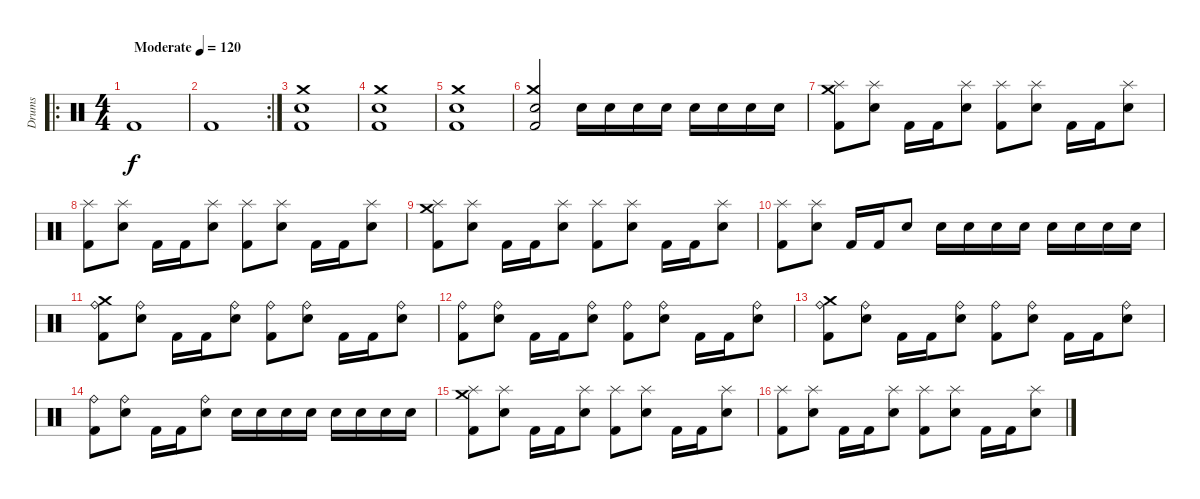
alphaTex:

\track ("Drums" "Drums") {instrument percussion}
\staff {score}
\articulation defaults
\ro
\ts (4 4)
\tempo (120 "Moderate")
\clef neutral
\ks c "Kick (hit) 2".1{dy f}
|
\rc 2 "Kick (hit) 2".1
|
("Crash medium (hit)" "Snare (hit) 2" "Kick (hit) 2").1 |
("Crash medium (hit)" "Snare (hit) 2" "Kick (hit) 2").1 |
("Crash medium (hit)" "Snare (hit) 2" "Kick (hit) 2").1 |
("Crash medium (hit)" "Snare (hit) 2" "Kick (hit) 2").2 "Snare (hit) 2".16 "Snare (hit) 2".16 "Snare (hit) 2".16 "Snare (hit) 2".16 "Snare (hit) 2".16 "Snare (hit) 2".16 "Snare (hit) 2".16 "Snare (hit) 2".16 |
("Splash (hit)" "Crash medium (hit)" "Kick (hit) 2").8 ("Splash (hit)" "Snare (hit) 2").8 "Kick (hit) 2".16 "Kick (hit) 2".16 ("Splash (hit)" "Snare (hit) 2").8 ("Splash (hit)" "Kick (hit) 2").8 ("Splash (hit)" "Snare (hit) 2").8 "Kick (hit) 2".16 "Kick (hit) 2".16 ("Splash (hit)" "Snare (hit) 2").8 |
("Splash (hit)" "Kick (hit) 2").8 ("Splash (hit)" "Snare (hit) 2").8 "Kick (hit) 2".16 "Kick (hit) 2".16 ("Splash (hit)" "Snare (hit) 2").8 ("Splash (hit)" "Kick (hit) 2").8 ("Splash (hit)" "Snare (hit) 2").8 "Kick (hit) 2".16 "Kick (hit) 2".16 ("Splash (hit)" "Snare (hit) 2").8 |
("Splash (hit)" "Crash medium (hit)" "Kick (hit) 2").8 ("Splash (hit)" "Snare (hit) 2").8 "Kick (hit) 2".16 "Kick (hit) 2".16 ("Splash (hit)" "Snare (hit) 2").8 ("Splash (hit)" "Kick (hit) 2").8 ("Splash (hit)" "Snare (hit) 2").8 "Kick (hit) 2".16 "Kick (hit) 2".16 ("Splash (hit)" "Snare (hit) 2").8 |
("Splash (hit)" "Kick (hit) 2").8 ("Splash (hit)" "Snare (hit) 2").8 "Kick (hit) 2".16 "Kick (hit) 2".16 "Snare (hit) 2".8 "Snare (hit) 2".16 "Snare (hit) 2".16 "Snare (hit) 2".16 "Snare (hit) 2".16 "Snare (hit) 2".16 "Snare (hit) 2".16 "Snare (hit) 2".16 "Snare (hit) 2".16 |
("Ride (bell)" "Crash medium (hit)" "Kick (hit) 2").8 ("Ride (bell)" "Snare (hit) 2").8 "Kick (hit) 2".16 "Kick (hit) 2".16 ("Ride (bell)" "Snare (hit) 2").8 ("Ride (bell)" "Kick (hit) 2").8 ("Ride (bell)" "Snare (hit) 2").8 "Kick (hit) 2".16 "Kick (hit) 2".16 ("Ride (bell)" "Snare (hit) 2").8 |
("Ride (bell)" "Kick (hit) 2").8 ("Ride (bell)" "Snare (hit) 2").8 "Kick (hit) 2".16 "Kick (hit) 2".16 ("Ride (bell)" "Snare (hit) 2").8 ("Ride (bell)" "Kick (hit) 2").8 ("Ride (bell)" "Snare (hit) 2").8 "Kick (hit) 2".16 "Kick (hit) 2".16 ("Ride (bell)" "Snare (hit) 2").8 |
("Ride (bell)" "Crash medium (hit)" "Kick (hit) 2").8 ("Ride (bell)" "Snare (hit) 2").8 "Kick (hit) 2".16 "Kick (hit) 2".16 ("Ride (bell)" "Snare (hit) 2").8 ("Ride (bell)" "Kick (hit) 2").8 ("Ride (bell)" "Snare (hit) 2").8 "Kick (hit) 2".16 "Kick (hit) 2".16 ("Ride (bell)" "Snare (hit) 2").8 |
("Ride (bell)" "Kick (hit) 2").8 ("Ride (bell)" "Snare (hit) 2").8 "Kick (hit) 2".16 "Kick (hit) 2".16 ("Ride (bell)" "Snare (hit) 2").8 "Snare (hit) 2".16 "Snare (hit) 2".16 "Snare (hit) 2".16 "Snare (hit) 2".16 "Snare (hit) 2".16 "Snare (hit) 2".16 "Snare (hit) 2".16 "Snare (hit) 2".16 |
("Splash (hit)" "Crash medium (hit)" "Kick (hit) 2").8 ("Splash (hit)" "Snare (hit) 2").8 "Kick (hit) 2".16 "Kick (hit) 2".16 ("Splash (hit)" "Snare (hit) 2").8 ("Splash (hit)" "Kick (hit) 2").8 ("Splash (hit)" "Snare (hit) 2").8 "Kick (hit) 2".16 "Kick (hit) 2".16 ("Splash (hit)" "Snare (hit) 2").8 |
("Splash (hit)" "Kick (hit) 2").8 ("Splash (hit)" "Snare (hit) 2").8 "Kick (hit) 2".16 "Kick (hit) 2".16 ("Splash (hit)" "Snare (hit) 2").8 ("Splash (hit)" "Kick (hit) 2").8 ("Splash (hit)" "Snare (hit) 2").8 "Kick (hit) 2".16 "Kick (hit) 2".16 ("Splash (hit)" "Snare (hit) 2").8
